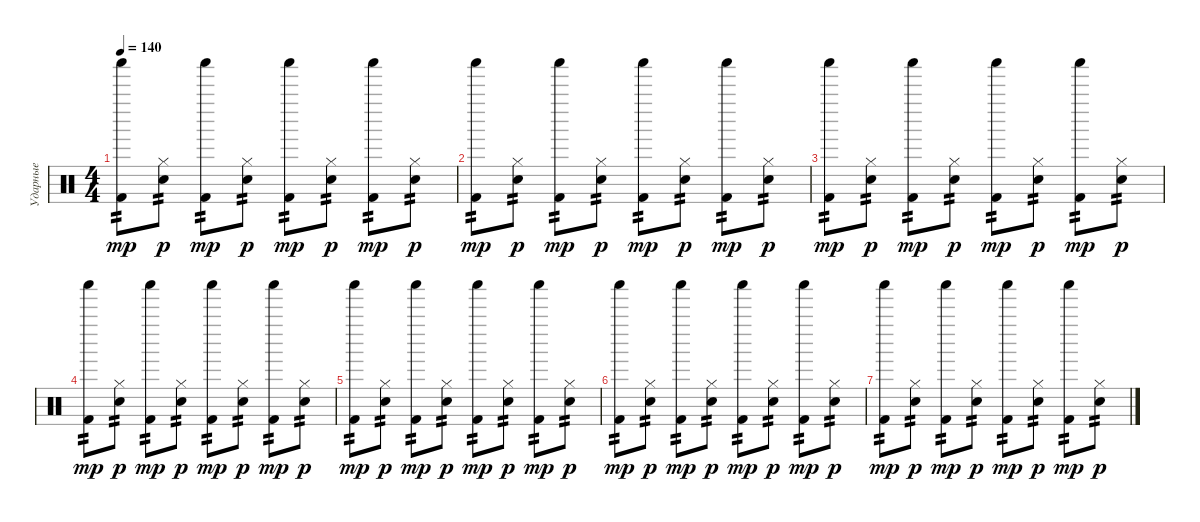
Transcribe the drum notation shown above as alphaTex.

\track ("Ударные" "Ударные") {instrument percussion}
\staff {score}
\articulation defaults
\ts (4 4)
\tempo 140
\clef neutral
\ks c
("Shaker (hit)" "Kick (hit) 2").8{tp 2 dy mp} ("Hi-Hat (closed)" "Snare (hit) 2").8{tp 2 dy p} ("Shaker (hit)" "Kick (hit) 2").8{tp 2 dy mp} ("Hi-Hat (closed)" "Snare (hit) 2").8{tp 2 dy p} ("Shaker (hit)" "Kick (hit) 2").8{tp 2 dy mp} ("Hi-Hat (closed)" "Snare (hit) 2").8{tp 2 dy p} ("Shaker (hit)" "Kick (hit) 2").8{tp 2 dy mp} ("Hi-Hat (closed)" "Snare (hit) 2").8{tp 2 dy p} |
("Shaker (hit)" "Kick (hit) 2").8{tp 2 dy mp} ("Hi-Hat (closed)" "Snare (hit) 2").8{tp 2 dy p} ("Shaker (hit)" "Kick (hit) 2").8{tp 2 dy mp} ("Hi-Hat (closed)" "Snare (hit) 2").8{tp 2 dy p} ("Shaker (hit)" "Kick (hit) 2").8{tp 2 dy mp} ("Hi-Hat (closed)" "Snare (hit) 2").8{tp 2 dy p} ("Shaker (hit)" "Kick (hit) 2").8{tp 2 dy mp} ("Hi-Hat (closed)" "Snare (hit) 2").8{tp 2 dy p} |
("Shaker (hit)" "Kick (hit) 2").8{tp 2 dy mp} ("Hi-Hat (closed)" "Snare (hit) 2").8{tp 2 dy p} ("Shaker (hit)" "Kick (hit) 2").8{tp 2 dy mp} ("Hi-Hat (closed)" "Snare (hit) 2").8{tp 2 dy p} ("Shaker (hit)" "Kick (hit) 2").8{tp 2 dy mp} ("Hi-Hat (closed)" "Snare (hit) 2").8{tp 2 dy p} ("Shaker (hit)" "Kick (hit) 2").8{tp 2 dy mp} ("Hi-Hat (closed)" "Snare (hit) 2").8{tp 2 dy p} |
("Shaker (hit)" "Kick (hit) 2").8{tp 2 dy mp} ("Hi-Hat (closed)" "Snare (hit) 2").8{tp 2 dy p} ("Shaker (hit)" "Kick (hit) 2").8{tp 2 dy mp} ("Hi-Hat (closed)" "Snare (hit) 2").8{tp 2 dy p} ("Shaker (hit)" "Kick (hit) 2").8{tp 2 dy mp} ("Hi-Hat (closed)" "Snare (hit) 2").8{tp 2 dy p} ("Shaker (hit)" "Kick (hit) 2").8{tp 2 dy mp} ("Hi-Hat (closed)" "Snare (hit) 2").8{tp 2 dy p} |
("Shaker (hit)" "Kick (hit) 2").8{tp 2 dy mp} ("Hi-Hat (closed)" "Snare (hit) 2").8{tp 2 dy p} ("Shaker (hit)" "Kick (hit) 2").8{tp 2 dy mp} ("Hi-Hat (closed)" "Snare (hit) 2").8{tp 2 dy p} ("Shaker (hit)" "Kick (hit) 2").8{tp 2 dy mp} ("Hi-Hat (closed)" "Snare (hit) 2").8{tp 2 dy p} ("Shaker (hit)" "Kick (hit) 2").8{tp 2 dy mp} ("Hi-Hat (closed)" "Snare (hit) 2").8{tp 2 dy p} |
("Shaker (hit)" "Kick (hit) 2").8{tp 2 dy mp} ("Hi-Hat (closed)" "Snare (hit) 2").8{tp 2 dy p} ("Shaker (hit)" "Kick (hit) 2").8{tp 2 dy mp} ("Hi-Hat (closed)" "Snare (hit) 2").8{tp 2 dy p} ("Shaker (hit)" "Kick (hit) 2").8{tp 2 dy mp} ("Hi-Hat (closed)" "Snare (hit) 2").8{tp 2 dy p} ("Shaker (hit)" "Kick (hit) 2").8{tp 2 dy mp} ("Hi-Hat (closed)" "Snare (hit) 2").8{tp 2 dy p} |
("Shaker (hit)" "Kick (hit) 2").8{tp 2 dy mp} ("Hi-Hat (closed)" "Snare (hit) 2").8{tp 2 dy p} ("Shaker (hit)" "Kick (hit) 2").8{tp 2 dy mp} ("Hi-Hat (closed)" "Snare (hit) 2").8{tp 2 dy p} ("Shaker (hit)" "Kick (hit) 2").8{tp 2 dy mp} ("Hi-Hat (closed)" "Snare (hit) 2").8{tp 2 dy p} ("Shaker (hit)" "Kick (hit) 2").8{tp 2 dy mp} ("Hi-Hat (closed)" "Snare (hit) 2").8{tp 2 dy p}
